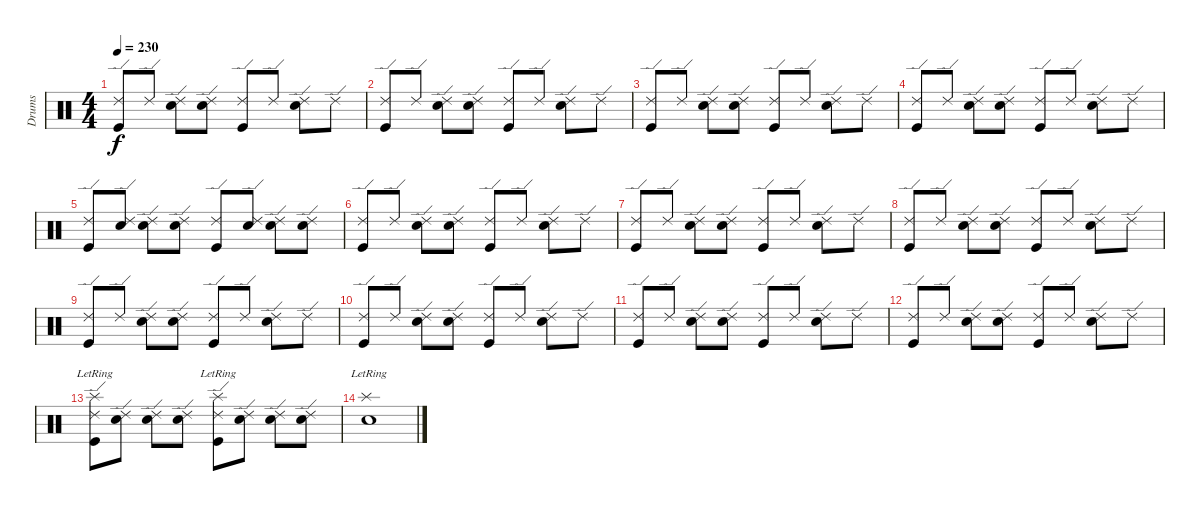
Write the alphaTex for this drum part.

\track ("Drums" "Drums") {instrument percussion}
\staff {score}
\articulation defaults
\ts (4 4)
\tempo 230
\clef neutral
\ks c
("Ride (edge) 2" "Kick (hit)").8{dy f} "Ride (edge) 2".8 ("Ride (edge) 2" "Snare (hit) 2").8 ("Ride (edge) 2" "Snare (hit) 2").8 ("Ride (edge) 2" "Kick (hit)").8 "Ride (edge) 2".8 ("Ride (edge) 2" "Snare (hit) 2").8 "Ride (edge) 2".8 |
("Ride (edge) 2" "Kick (hit)").8 "Ride (edge) 2".8 ("Ride (edge) 2" "Snare (hit) 2").8 ("Ride (edge) 2" "Snare (hit) 2").8 ("Ride (edge) 2" "Kick (hit)").8 "Ride (edge) 2".8 ("Ride (edge) 2" "Snare (hit) 2").8 "Ride (edge) 2".8 |
("Ride (edge) 2" "Kick (hit)").8 "Ride (edge) 2".8 ("Ride (edge) 2" "Snare (hit) 2").8 ("Ride (edge) 2" "Snare (hit) 2").8 ("Ride (edge) 2" "Kick (hit)").8 "Ride (edge) 2".8 ("Ride (edge) 2" "Snare (hit) 2").8 "Ride (edge) 2".8 |
("Ride (edge) 2" "Kick (hit)").8 "Ride (edge) 2".8 ("Ride (edge) 2" "Snare (hit) 2").8 ("Ride (edge) 2" "Snare (hit) 2").8 ("Ride (edge) 2" "Kick (hit)").8 "Ride (edge) 2".8 ("Ride (edge) 2" "Snare (hit) 2").8 "Ride (edge) 2".8 |
("Ride (edge) 2" "Kick (hit)").8 ("Ride (edge) 2" "Snare (hit) 2").8 ("Ride (edge) 2" "Snare (hit) 2").8 ("Ride (edge) 2" "Snare (hit) 2").8 ("Ride (edge) 2" "Kick (hit)").8 ("Ride (edge) 2" "Snare (hit) 2").8 ("Ride (edge) 2" "Snare (hit) 2").8 ("Ride (edge) 2" "Snare (hit) 2").8 |
("Ride (edge) 2" "Kick (hit)").8 "Ride (edge) 2".8 ("Ride (edge) 2" "Snare (hit) 2").8 ("Ride (edge) 2" "Snare (hit) 2").8 ("Ride (edge) 2" "Kick (hit)").8 "Ride (edge) 2".8 ("Ride (edge) 2" "Snare (hit) 2").8 "Ride (edge) 2".8 |
("Ride (edge) 2" "Kick (hit)").8 "Ride (edge) 2".8 ("Ride (edge) 2" "Snare (hit) 2").8 ("Ride (edge) 2" "Snare (hit) 2").8 ("Ride (edge) 2" "Kick (hit)").8 "Ride (edge) 2".8 ("Ride (edge) 2" "Snare (hit) 2").8 "Ride (edge) 2".8 |
("Ride (edge) 2" "Kick (hit)").8 "Ride (edge) 2".8 ("Ride (edge) 2" "Snare (hit) 2").8 ("Ride (edge) 2" "Snare (hit) 2").8 ("Ride (edge) 2" "Kick (hit)").8 "Ride (edge) 2".8 ("Ride (edge) 2" "Snare (hit) 2").8 "Ride (edge) 2".8 |
("Ride (edge) 2" "Kick (hit)").8 "Ride (edge) 2".8 ("Ride (edge) 2" "Snare (hit) 2").8 ("Ride (edge) 2" "Snare (hit) 2").8 ("Ride (edge) 2" "Kick (hit)").8 "Ride (edge) 2".8 ("Ride (edge) 2" "Snare (hit) 2").8 "Ride (edge) 2".8 |
("Ride (edge) 2" "Kick (hit)").8 "Ride (edge) 2".8 ("Ride (edge) 2" "Snare (hit) 2").8 ("Ride (edge) 2" "Snare (hit) 2").8 ("Ride (edge) 2" "Kick (hit)").8 "Ride (edge) 2".8 ("Ride (edge) 2" "Snare (hit) 2").8 "Ride (edge) 2".8 |
("Ride (edge) 2" "Kick (hit)").8 "Ride (edge) 2".8 ("Ride (edge) 2" "Snare (hit) 2").8 ("Ride (edge) 2" "Snare (hit) 2").8 ("Ride (edge) 2" "Kick (hit)").8 "Ride (edge) 2".8 ("Ride (edge) 2" "Snare (hit) 2").8 "Ride (edge) 2".8 |
("Ride (edge) 2" "Kick (hit)").8 "Ride (edge) 2".8 ("Ride (edge) 2" "Snare (hit) 2").8 ("Ride (edge) 2" "Snare (hit) 2").8 ("Ride (edge) 2" "Kick (hit)").8 "Ride (edge) 2".8 ("Ride (edge) 2" "Snare (hit) 2").8 "Ride (edge) 2".8 |
("Ride (edge) 2" "Splash (hit)"{lr} "Kick (hit)").8 ("Ride (edge) 2" "Snare (hit) 2").8 ("Ride (edge) 2" "Snare (hit) 2").8 ("Ride (edge) 2" "Snare (hit) 2").8 ("Ride (edge) 2" "Splash (hit)"{lr} "Kick (hit)").8 ("Ride (edge) 2" "Snare (hit) 2").8 ("Ride (edge) 2" "Snare (hit) 2").8 ("Ride (edge) 2" "Snare (hit) 2").8 |
("Splash (hit)"{lr} "Snare (hit) 2").1
